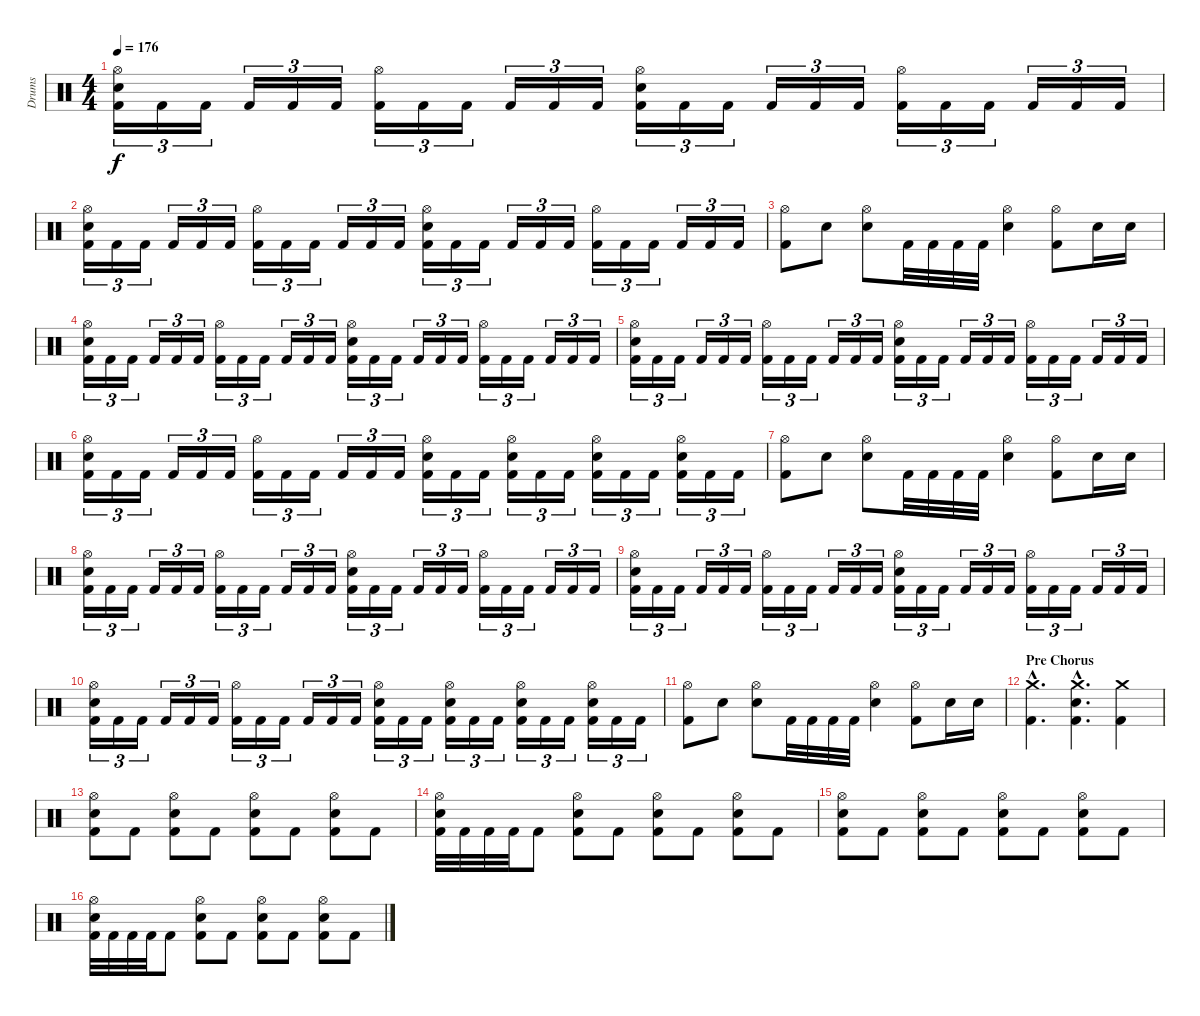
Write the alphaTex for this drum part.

\track ("Drums" "Drums") {instrument percussion}
\staff {score}
\articulation defaults
\ts (4 4)
\tempo 176
\clef neutral
\ks c
("Hi-Hat (open)" "Snare (hit) 2" "Kick (hit) 2").16{tu (3 2) dy f} "Kick (hit) 2".16{tu (3 2)} "Kick (hit) 2".16{tu (3 2)} "Kick (hit) 2".16{tu (3 2)} "Kick (hit) 2".16{tu (3 2)} "Kick (hit) 2".16{tu (3 2)} ("Hi-Hat (open)" "Kick (hit) 2").16{tu (3 2)} "Kick (hit) 2".16{tu (3 2)} "Kick (hit) 2".16{tu (3 2)} "Kick (hit) 2".16{tu (3 2)} "Kick (hit) 2".16{tu (3 2)} "Kick (hit) 2".16{tu (3 2)} ("Hi-Hat (open)" "Snare (hit) 2" "Kick (hit) 2").16{tu (3 2)} "Kick (hit) 2".16{tu (3 2)} "Kick (hit) 2".16{tu (3 2)} "Kick (hit) 2".16{tu (3 2)} "Kick (hit) 2".16{tu (3 2)} "Kick (hit) 2".16{tu (3 2)} ("Hi-Hat (open)" "Kick (hit) 2").16{tu (3 2)} "Kick (hit) 2".16{tu (3 2)} "Kick (hit) 2".16{tu (3 2)} "Kick (hit) 2".16{tu (3 2)} "Kick (hit) 2".16{tu (3 2)} "Kick (hit) 2".16{tu (3 2)} |
("Hi-Hat (open)" "Snare (hit) 2" "Kick (hit) 2").16{tu (3 2)} "Kick (hit) 2".16{tu (3 2)} "Kick (hit) 2".16{tu (3 2)} "Kick (hit) 2".16{tu (3 2)} "Kick (hit) 2".16{tu (3 2)} "Kick (hit) 2".16{tu (3 2)} ("Hi-Hat (open)" "Kick (hit) 2").16{tu (3 2)} "Kick (hit) 2".16{tu (3 2)} "Kick (hit) 2".16{tu (3 2)} "Kick (hit) 2".16{tu (3 2)} "Kick (hit) 2".16{tu (3 2)} "Kick (hit) 2".16{tu (3 2)} ("Hi-Hat (open)" "Snare (hit) 2" "Kick (hit) 2").16{tu (3 2)} "Kick (hit) 2".16{tu (3 2)} "Kick (hit) 2".16{tu (3 2)} "Kick (hit) 2".16{tu (3 2)} "Kick (hit) 2".16{tu (3 2)} "Kick (hit) 2".16{tu (3 2)} ("Hi-Hat (open)" "Kick (hit) 2").16{tu (3 2)} "Kick (hit) 2".16{tu (3 2)} "Kick (hit) 2".16{tu (3 2)} "Kick (hit) 2".16{tu (3 2)} "Kick (hit) 2".16{tu (3 2)} "Kick (hit) 2".16{tu (3 2)} |
("Hi-Hat (open)" "Kick (hit) 2").8 "Snare (hit) 2".8 ("Hi-Hat (open)" "Snare (hit) 2").8 "Kick (hit) 2".32 "Kick (hit) 2".32 "Kick (hit) 2".32 "Kick (hit) 2".32 ("Hi-Hat (open)" "Snare (hit) 2").4 ("Hi-Hat (open)" "Kick (hit) 2").8 "Snare (hit) 2".16 "Snare (hit) 2".16 |
("Hi-Hat (open)" "Snare (hit) 2" "Kick (hit) 2").16{tu (3 2)} "Kick (hit) 2".16{tu (3 2)} "Kick (hit) 2".16{tu (3 2)} "Kick (hit) 2".16{tu (3 2)} "Kick (hit) 2".16{tu (3 2)} "Kick (hit) 2".16{tu (3 2)} ("Hi-Hat (open)" "Kick (hit) 2").16{tu (3 2)} "Kick (hit) 2".16{tu (3 2)} "Kick (hit) 2".16{tu (3 2)} "Kick (hit) 2".16{tu (3 2)} "Kick (hit) 2".16{tu (3 2)} "Kick (hit) 2".16{tu (3 2)} ("Hi-Hat (open)" "Snare (hit) 2" "Kick (hit) 2").16{tu (3 2)} "Kick (hit) 2".16{tu (3 2)} "Kick (hit) 2".16{tu (3 2)} "Kick (hit) 2".16{tu (3 2)} "Kick (hit) 2".16{tu (3 2)} "Kick (hit) 2".16{tu (3 2)} ("Hi-Hat (open)" "Kick (hit) 2").16{tu (3 2)} "Kick (hit) 2".16{tu (3 2)} "Kick (hit) 2".16{tu (3 2)} "Kick (hit) 2".16{tu (3 2)} "Kick (hit) 2".16{tu (3 2)} "Kick (hit) 2".16{tu (3 2)} |
("Hi-Hat (open)" "Snare (hit) 2" "Kick (hit) 2").16{tu (3 2)} "Kick (hit) 2".16{tu (3 2)} "Kick (hit) 2".16{tu (3 2)} "Kick (hit) 2".16{tu (3 2)} "Kick (hit) 2".16{tu (3 2)} "Kick (hit) 2".16{tu (3 2)} ("Hi-Hat (open)" "Kick (hit) 2").16{tu (3 2)} "Kick (hit) 2".16{tu (3 2)} "Kick (hit) 2".16{tu (3 2)} "Kick (hit) 2".16{tu (3 2)} "Kick (hit) 2".16{tu (3 2)} "Kick (hit) 2".16{tu (3 2)} ("Hi-Hat (open)" "Snare (hit) 2" "Kick (hit) 2").16{tu (3 2)} "Kick (hit) 2".16{tu (3 2)} "Kick (hit) 2".16{tu (3 2)} "Kick (hit) 2".16{tu (3 2)} "Kick (hit) 2".16{tu (3 2)} "Kick (hit) 2".16{tu (3 2)} ("Hi-Hat (open)" "Kick (hit) 2").16{tu (3 2)} "Kick (hit) 2".16{tu (3 2)} "Kick (hit) 2".16{tu (3 2)} "Kick (hit) 2".16{tu (3 2)} "Kick (hit) 2".16{tu (3 2)} "Kick (hit) 2".16{tu (3 2)} |
("Hi-Hat (open)" "Snare (hit) 2" "Kick (hit) 2").16{tu (3 2)} "Kick (hit) 2".16{tu (3 2)} "Kick (hit) 2".16{tu (3 2)} "Kick (hit) 2".16{tu (3 2)} "Kick (hit) 2".16{tu (3 2)} "Kick (hit) 2".16{tu (3 2)} ("Hi-Hat (open)" "Kick (hit) 2").16{tu (3 2)} "Kick (hit) 2".16{tu (3 2)} "Kick (hit) 2".16{tu (3 2)} "Kick (hit) 2".16{tu (3 2)} "Kick (hit) 2".16{tu (3 2)} "Kick (hit) 2".16{tu (3 2)} ("Hi-Hat (open)" "Snare (hit) 2" "Kick (hit) 2").16{tu (3 2)} "Kick (hit) 2".16{tu (3 2)} "Kick (hit) 2".16{tu (3 2)} ("Hi-Hat (open)" "Snare (hit) 2" "Kick (hit) 2").16{tu (3 2)} "Kick (hit) 2".16{tu (3 2)} "Kick (hit) 2".16{tu (3 2)} ("Hi-Hat (open)" "Snare (hit) 2" "Kick (hit) 2").16{tu (3 2)} "Kick (hit) 2".16{tu (3 2)} "Kick (hit) 2".16{tu (3 2)} ("Hi-Hat (open)" "Snare (hit) 2" "Kick (hit) 2").16{tu (3 2)} "Kick (hit) 2".16{tu (3 2)} "Kick (hit) 2".16{tu (3 2)} |
("Hi-Hat (open)" "Kick (hit) 2").8 "Snare (hit) 2".8 ("Hi-Hat (open)" "Snare (hit) 2").8 "Kick (hit) 2".32 "Kick (hit) 2".32 "Kick (hit) 2".32 "Kick (hit) 2".32 ("Hi-Hat (open)" "Snare (hit) 2").4 ("Hi-Hat (open)" "Kick (hit) 2").8 "Snare (hit) 2".16 "Snare (hit) 2".16 |
("Hi-Hat (open)" "Snare (hit) 2" "Kick (hit) 2").16{tu (3 2)} "Kick (hit) 2".16{tu (3 2)} "Kick (hit) 2".16{tu (3 2)} "Kick (hit) 2".16{tu (3 2)} "Kick (hit) 2".16{tu (3 2)} "Kick (hit) 2".16{tu (3 2)} ("Hi-Hat (open)" "Kick (hit) 2").16{tu (3 2)} "Kick (hit) 2".16{tu (3 2)} "Kick (hit) 2".16{tu (3 2)} "Kick (hit) 2".16{tu (3 2)} "Kick (hit) 2".16{tu (3 2)} "Kick (hit) 2".16{tu (3 2)} ("Hi-Hat (open)" "Snare (hit) 2" "Kick (hit) 2").16{tu (3 2)} "Kick (hit) 2".16{tu (3 2)} "Kick (hit) 2".16{tu (3 2)} "Kick (hit) 2".16{tu (3 2)} "Kick (hit) 2".16{tu (3 2)} "Kick (hit) 2".16{tu (3 2)} ("Hi-Hat (open)" "Kick (hit) 2").16{tu (3 2)} "Kick (hit) 2".16{tu (3 2)} "Kick (hit) 2".16{tu (3 2)} "Kick (hit) 2".16{tu (3 2)} "Kick (hit) 2".16{tu (3 2)} "Kick (hit) 2".16{tu (3 2)} |
("Hi-Hat (open)" "Snare (hit) 2" "Kick (hit) 2").16{tu (3 2)} "Kick (hit) 2".16{tu (3 2)} "Kick (hit) 2".16{tu (3 2)} "Kick (hit) 2".16{tu (3 2)} "Kick (hit) 2".16{tu (3 2)} "Kick (hit) 2".16{tu (3 2)} ("Hi-Hat (open)" "Kick (hit) 2").16{tu (3 2)} "Kick (hit) 2".16{tu (3 2)} "Kick (hit) 2".16{tu (3 2)} "Kick (hit) 2".16{tu (3 2)} "Kick (hit) 2".16{tu (3 2)} "Kick (hit) 2".16{tu (3 2)} ("Hi-Hat (open)" "Snare (hit) 2" "Kick (hit) 2").16{tu (3 2)} "Kick (hit) 2".16{tu (3 2)} "Kick (hit) 2".16{tu (3 2)} "Kick (hit) 2".16{tu (3 2)} "Kick (hit) 2".16{tu (3 2)} "Kick (hit) 2".16{tu (3 2)} ("Hi-Hat (open)" "Kick (hit) 2").16{tu (3 2)} "Kick (hit) 2".16{tu (3 2)} "Kick (hit) 2".16{tu (3 2)} "Kick (hit) 2".16{tu (3 2)} "Kick (hit) 2".16{tu (3 2)} "Kick (hit) 2".16{tu (3 2)} |
("Hi-Hat (open)" "Snare (hit) 2" "Kick (hit) 2").16{tu (3 2)} "Kick (hit) 2".16{tu (3 2)} "Kick (hit) 2".16{tu (3 2)} "Kick (hit) 2".16{tu (3 2)} "Kick (hit) 2".16{tu (3 2)} "Kick (hit) 2".16{tu (3 2)} ("Hi-Hat (open)" "Kick (hit) 2").16{tu (3 2)} "Kick (hit) 2".16{tu (3 2)} "Kick (hit) 2".16{tu (3 2)} "Kick (hit) 2".16{tu (3 2)} "Kick (hit) 2".16{tu (3 2)} "Kick (hit) 2".16{tu (3 2)} ("Hi-Hat (open)" "Snare (hit) 2" "Kick (hit) 2").16{tu (3 2)} "Kick (hit) 2".16{tu (3 2)} "Kick (hit) 2".16{tu (3 2)} ("Hi-Hat (open)" "Snare (hit) 2" "Kick (hit) 2").16{tu (3 2)} "Kick (hit) 2".16{tu (3 2)} "Kick (hit) 2".16{tu (3 2)} ("Hi-Hat (open)" "Snare (hit) 2" "Kick (hit) 2").16{tu (3 2)} "Kick (hit) 2".16{tu (3 2)} "Kick (hit) 2".16{tu (3 2)} ("Hi-Hat (open)" "Snare (hit) 2" "Kick (hit) 2").16{tu (3 2)} "Kick (hit) 2".16{tu (3 2)} "Kick (hit) 2".16{tu (3 2)} |
("Hi-Hat (open)" "Kick (hit) 2").8 "Snare (hit) 2".8 ("Hi-Hat (open)" "Snare (hit) 2").8 "Kick (hit) 2".32 "Kick (hit) 2".32 "Kick (hit) 2".32 "Kick (hit) 2".32 ("Hi-Hat (open)" "Snare (hit) 2").4 ("Hi-Hat (open)" "Kick (hit) 2").8 "Snare (hit) 2".16 "Snare (hit) 2".16 |
\section ("" "Pre Chorus")
("Crash medium (hit)"{hac} "Kick (hit) 2"{hac}).4{d} ("Crash medium (hit)"{hac} "Snare (hit) 2"{hac} "Kick (hit) 2"{hac}).4{d} ("Crash medium (hit)" "Kick (hit) 2").4 |
("Hi-Hat (open)" "Snare (hit) 2" "Kick (hit) 2").8 "Kick (hit) 2".8 ("Hi-Hat (open)" "Snare (hit) 2" "Kick (hit) 2").8 "Kick (hit) 2".8 ("Hi-Hat (open)" "Snare (hit) 2" "Kick (hit) 2").8 "Kick (hit) 2".8 ("Hi-Hat (open)" "Snare (hit) 2" "Kick (hit) 2").8 "Kick (hit) 2".8 |
("Hi-Hat (open)" "Snare (hit) 2" "Kick (hit) 2").32 "Kick (hit) 2".32 "Kick (hit) 2".32 "Kick (hit) 2".32 "Kick (hit) 2".8 ("Hi-Hat (open)" "Snare (hit) 2" "Kick (hit) 2").8 "Kick (hit) 2".8 ("Hi-Hat (open)" "Snare (hit) 2" "Kick (hit) 2").8 "Kick (hit) 2".8 ("Hi-Hat (open)" "Snare (hit) 2" "Kick (hit) 2").8 "Kick (hit) 2".8 |
("Hi-Hat (open)" "Snare (hit) 2" "Kick (hit) 2").8 "Kick (hit) 2".8 ("Hi-Hat (open)" "Snare (hit) 2" "Kick (hit) 2").8 "Kick (hit) 2".8 ("Hi-Hat (open)" "Snare (hit) 2" "Kick (hit) 2").8 "Kick (hit) 2".8 ("Hi-Hat (open)" "Snare (hit) 2" "Kick (hit) 2").8 "Kick (hit) 2".8 |
("Hi-Hat (open)" "Snare (hit) 2" "Kick (hit) 2").32 "Kick (hit) 2".32 "Kick (hit) 2".32 "Kick (hit) 2".32 "Kick (hit) 2".8 ("Hi-Hat (open)" "Snare (hit) 2" "Kick (hit) 2").8 "Kick (hit) 2".8 ("Hi-Hat (open)" "Snare (hit) 2" "Kick (hit) 2").8 "Kick (hit) 2".8 ("Hi-Hat (open)" "Snare (hit) 2" "Kick (hit) 2").8 "Kick (hit) 2".8
